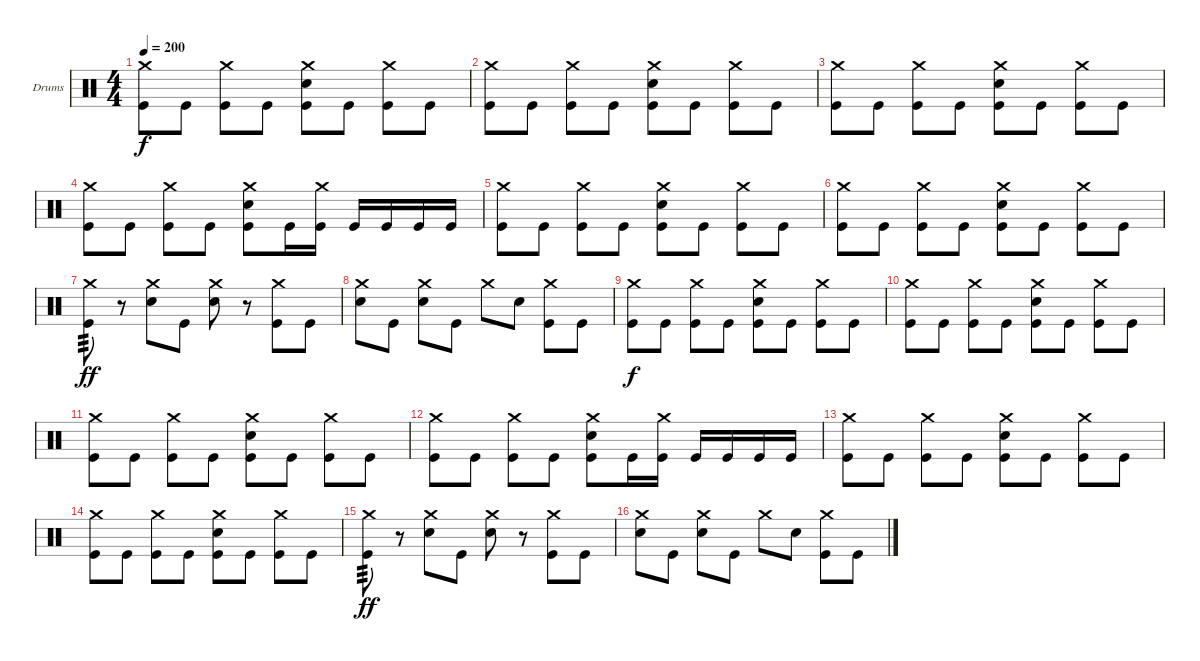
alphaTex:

\defaultSystemsLayout 4
\bracketExtendMode groupsimilarinstruments
\firstSystemTrackNameOrientation horizontal
\otherSystemsTrackNameOrientation horizontal
\track ("Drumkit" "Drums") {instrument percussion}
\staff {score}
\articulation defaults
\ts (4 4)
\tempo 200
\clef neutral
\ks c
("Crash medium (hit)" "Kick (hit)").8{dy f} "Kick (hit)".8 ("Crash medium (hit)" "Kick (hit)").8 "Kick (hit)".8 ("Crash medium (hit)" "Snare (hit) 2" "Kick (hit)").8 "Kick (hit)".8 ("Crash medium (hit)" "Kick (hit)").8 "Kick (hit)".8 |
("Crash medium (hit)" "Kick (hit)").8 "Kick (hit)".8 ("Crash medium (hit)" "Kick (hit)").8 "Kick (hit)".8 ("Crash medium (hit)" "Snare (hit) 2" "Kick (hit)").8 "Kick (hit)".8 ("Crash medium (hit)" "Kick (hit)").8 "Kick (hit)".8 |
("Crash medium (hit)" "Kick (hit)").8 "Kick (hit)".8 ("Crash medium (hit)" "Kick (hit)").8 "Kick (hit)".8 ("Crash medium (hit)" "Snare (hit) 2" "Kick (hit)").8 "Kick (hit)".8 ("Crash medium (hit)" "Kick (hit)").8 "Kick (hit)".8 |
("Crash medium (hit)" "Kick (hit)").8 "Kick (hit)".8 ("Crash medium (hit)" "Kick (hit)").8 "Kick (hit)".8 ("Crash medium (hit)" "Snare (hit) 2" "Kick (hit)").8 "Kick (hit)".16 ("Crash medium (hit)" "Kick (hit)").16 "Kick (hit)".16 "Kick (hit)".16 "Kick (hit)".16 "Kick (hit)".16 |
("Crash medium (hit)" "Kick (hit)").8 "Kick (hit)".8 ("Crash medium (hit)" "Kick (hit)").8 "Kick (hit)".8 ("Crash medium (hit)" "Snare (hit) 2" "Kick (hit)").8 "Kick (hit)".8 ("Crash medium (hit)" "Kick (hit)").8 "Kick (hit)".8 |
("Crash medium (hit)" "Kick (hit)").8 "Kick (hit)".8 ("Crash medium (hit)" "Kick (hit)").8 "Kick (hit)".8 ("Crash medium (hit)" "Snare (hit) 2" "Kick (hit)").8 "Kick (hit)".8 ("Crash medium (hit)" "Kick (hit)").8 "Kick (hit)".8 |
("Crash medium (hit)" "Kick (hit)").8{tp 3 dy ff} r.8 ("Crash medium (hit)" "Snare (hit) 2").8 "Kick (hit)".8 ("Crash medium (hit)" "Snare (hit) 2").8 r.8 ("Crash medium (hit)" "Kick (hit)").8 "Kick (hit)".8 |
("Crash medium (hit)" "Snare (hit) 2").8 "Kick (hit)".8 ("Crash medium (hit)" "Snare (hit) 2").8 "Kick (hit)".8 "Crash medium (hit)".8 "Snare (hit) 2".8 ("Crash medium (hit)" "Kick (hit)").8 "Kick (hit)".8 |
("Crash medium (hit)" "Kick (hit)").8{dy f} "Kick (hit)".8 ("Crash medium (hit)" "Kick (hit)").8 "Kick (hit)".8 ("Crash medium (hit)" "Snare (hit) 2" "Kick (hit)").8 "Kick (hit)".8 ("Crash medium (hit)" "Kick (hit)").8 "Kick (hit)".8 |
("Crash medium (hit)" "Kick (hit)").8 "Kick (hit)".8 ("Crash medium (hit)" "Kick (hit)").8 "Kick (hit)".8 ("Crash medium (hit)" "Snare (hit) 2" "Kick (hit)").8 "Kick (hit)".8 ("Crash medium (hit)" "Kick (hit)").8 "Kick (hit)".8 |
("Crash medium (hit)" "Kick (hit)").8 "Kick (hit)".8 ("Crash medium (hit)" "Kick (hit)").8 "Kick (hit)".8 ("Crash medium (hit)" "Snare (hit) 2" "Kick (hit)").8 "Kick (hit)".8 ("Crash medium (hit)" "Kick (hit)").8 "Kick (hit)".8 |
("Crash medium (hit)" "Kick (hit)").8 "Kick (hit)".8 ("Crash medium (hit)" "Kick (hit)").8 "Kick (hit)".8 ("Crash medium (hit)" "Snare (hit) 2" "Kick (hit)").8 "Kick (hit)".16 ("Crash medium (hit)" "Kick (hit)").16 "Kick (hit)".16 "Kick (hit)".16 "Kick (hit)".16 "Kick (hit)".16 |
("Crash medium (hit)" "Kick (hit)").8 "Kick (hit)".8 ("Crash medium (hit)" "Kick (hit)").8 "Kick (hit)".8 ("Crash medium (hit)" "Snare (hit) 2" "Kick (hit)").8 "Kick (hit)".8 ("Crash medium (hit)" "Kick (hit)").8 "Kick (hit)".8 |
("Crash medium (hit)" "Kick (hit)").8 "Kick (hit)".8 ("Crash medium (hit)" "Kick (hit)").8 "Kick (hit)".8 ("Crash medium (hit)" "Snare (hit) 2" "Kick (hit)").8 "Kick (hit)".8 ("Crash medium (hit)" "Kick (hit)").8 "Kick (hit)".8 |
("Crash medium (hit)" "Kick (hit)").8{tp 3 dy ff} r.8 ("Crash medium (hit)" "Snare (hit) 2").8 "Kick (hit)".8 ("Crash medium (hit)" "Snare (hit) 2").8 r.8 ("Crash medium (hit)" "Kick (hit)").8 "Kick (hit)".8 |
("Crash medium (hit)" "Snare (hit) 2").8 "Kick (hit)".8 ("Crash medium (hit)" "Snare (hit) 2").8 "Kick (hit)".8 "Crash medium (hit)".8 "Snare (hit) 2".8 ("Crash medium (hit)" "Kick (hit)").8 "Kick (hit)".8
